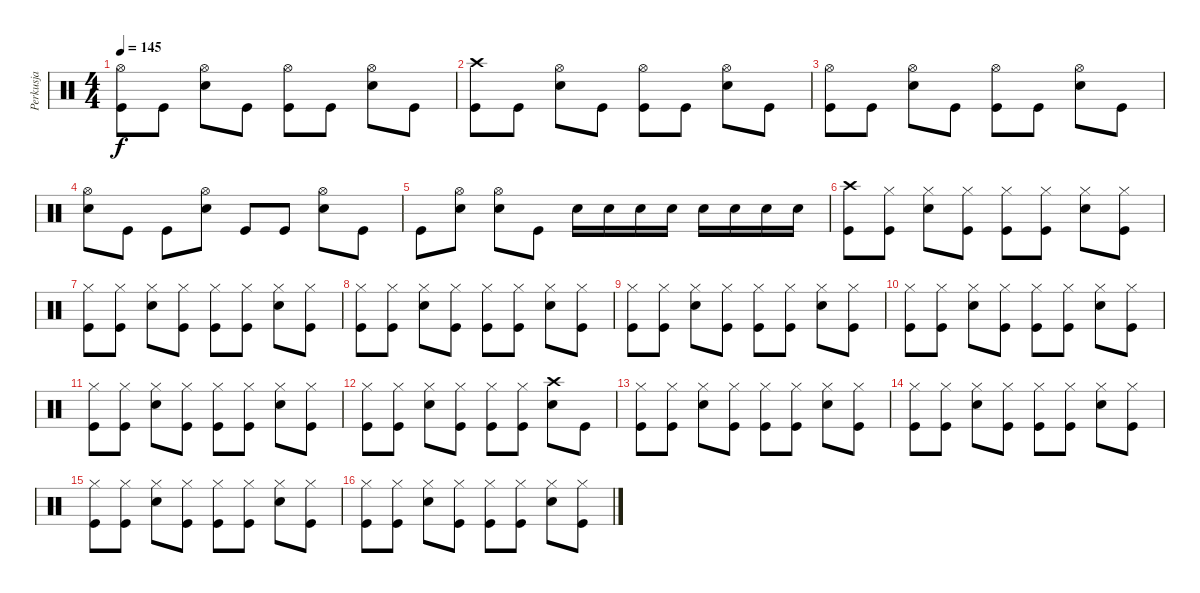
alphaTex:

\track ("Perkusja" "Perkusja") {instrument percussion}
\staff {score}
\articulation defaults
\ts (4 4)
\tempo 145
\clef neutral
\ks c
("Hi-Hat (open)" "Kick (hit)").8{dy f} "Kick (hit)".8 ("Hi-Hat (open)" "Snare (hit) 2").8 "Kick (hit)".8 ("Hi-Hat (open)" "Kick (hit)").8 "Kick (hit)".8 ("Hi-Hat (open)" "Snare (hit) 2").8 "Kick (hit)".8 |
("Crash high (hit)" "Kick (hit)").8 "Kick (hit)".8 ("Hi-Hat (open)" "Snare (hit) 2").8 "Kick (hit)".8 ("Hi-Hat (open)" "Kick (hit)").8 "Kick (hit)".8 ("Hi-Hat (open)" "Snare (hit) 2").8 "Kick (hit)".8 |
("Hi-Hat (open)" "Kick (hit)").8 "Kick (hit)".8 ("Hi-Hat (open)" "Snare (hit) 2").8 "Kick (hit)".8 ("Hi-Hat (open)" "Kick (hit)").8 "Kick (hit)".8 ("Hi-Hat (open)" "Snare (hit) 2").8 "Kick (hit)".8 |
("Hi-Hat (open)" "Snare (hit) 2").8 "Kick (hit)".8 "Kick (hit)".8 ("Hi-Hat (open)" "Snare (hit) 2").8 "Kick (hit)".8 "Kick (hit)".8 ("Hi-Hat (open)" "Snare (hit) 2").8 "Kick (hit)".8 |
"Kick (hit)".8 ("Hi-Hat (open)" "Snare (hit) 2").8 ("Hi-Hat (open)" "Snare (hit) 2").8 "Kick (hit)".8 "Snare (hit) 2".16 "Snare (hit) 2".16 "Snare (hit) 2".16 "Snare (hit) 2".16 "Snare (hit) 2".16 "Snare (hit) 2".16 "Snare (hit) 2".16 "Snare (hit) 2".16 |
("Crash high (hit)" "Kick (hit)").8 ("Hi-Hat (closed)" "Kick (hit)").8 ("Hi-Hat (closed)" "Snare (hit) 2").8 ("Hi-Hat (closed)" "Kick (hit)").8 ("Hi-Hat (closed)" "Kick (hit)").8 ("Hi-Hat (closed)" "Kick (hit)").8 ("Hi-Hat (closed)" "Snare (hit) 2").8 ("Hi-Hat (closed)" "Kick (hit)").8 |
("Hi-Hat (closed)" "Kick (hit)").8 ("Hi-Hat (closed)" "Kick (hit)").8 ("Hi-Hat (closed)" "Snare (hit) 2").8 ("Hi-Hat (closed)" "Kick (hit)").8 ("Hi-Hat (closed)" "Kick (hit)").8 ("Hi-Hat (closed)" "Kick (hit)").8 ("Hi-Hat (closed)" "Snare (hit) 2").8 ("Hi-Hat (closed)" "Kick (hit)").8 |
("Hi-Hat (closed)" "Kick (hit)").8 ("Hi-Hat (closed)" "Kick (hit)").8 ("Hi-Hat (closed)" "Snare (hit) 2").8 ("Hi-Hat (closed)" "Kick (hit)").8 ("Hi-Hat (closed)" "Kick (hit)").8 ("Hi-Hat (closed)" "Kick (hit)").8 ("Hi-Hat (closed)" "Snare (hit) 2").8 ("Hi-Hat (closed)" "Kick (hit)").8 |
("Hi-Hat (closed)" "Kick (hit)").8 ("Hi-Hat (closed)" "Kick (hit)").8 ("Hi-Hat (closed)" "Snare (hit) 2").8 ("Hi-Hat (closed)" "Kick (hit)").8 ("Hi-Hat (closed)" "Kick (hit)").8 ("Hi-Hat (closed)" "Kick (hit)").8 ("Hi-Hat (closed)" "Snare (hit) 2").8 ("Hi-Hat (closed)" "Kick (hit)").8 |
("Hi-Hat (closed)" "Kick (hit)").8 ("Hi-Hat (closed)" "Kick (hit)").8 ("Hi-Hat (closed)" "Snare (hit) 2").8 ("Hi-Hat (closed)" "Kick (hit)").8 ("Hi-Hat (closed)" "Kick (hit)").8 ("Hi-Hat (closed)" "Kick (hit)").8 ("Hi-Hat (closed)" "Snare (hit) 2").8 ("Hi-Hat (closed)" "Kick (hit)").8 |
("Hi-Hat (closed)" "Kick (hit)").8 ("Hi-Hat (closed)" "Kick (hit)").8 ("Hi-Hat (closed)" "Snare (hit) 2").8 ("Hi-Hat (closed)" "Kick (hit)").8 ("Hi-Hat (closed)" "Kick (hit)").8 ("Hi-Hat (closed)" "Kick (hit)").8 ("Hi-Hat (closed)" "Snare (hit) 2").8 ("Hi-Hat (closed)" "Kick (hit)").8 |
("Hi-Hat (closed)" "Kick (hit)").8 ("Hi-Hat (closed)" "Kick (hit)").8 ("Hi-Hat (closed)" "Snare (hit) 2").8 ("Hi-Hat (closed)" "Kick (hit)").8 ("Hi-Hat (closed)" "Kick (hit)").8 ("Hi-Hat (closed)" "Kick (hit)").8 ("Crash high (hit)" "Snare (hit) 2").8 "Kick (hit)".8 |
("Hi-Hat (closed)" "Kick (hit)").8 ("Hi-Hat (closed)" "Kick (hit)").8 ("Hi-Hat (closed)" "Snare (hit) 2").8 ("Hi-Hat (closed)" "Kick (hit)").8 ("Hi-Hat (closed)" "Kick (hit)").8 ("Hi-Hat (closed)" "Kick (hit)").8 ("Hi-Hat (closed)" "Snare (hit) 2").8 ("Hi-Hat (closed)" "Kick (hit)").8 |
("Hi-Hat (closed)" "Kick (hit)").8 ("Hi-Hat (closed)" "Kick (hit)").8 ("Hi-Hat (closed)" "Snare (hit) 2").8 ("Hi-Hat (closed)" "Kick (hit)").8 ("Hi-Hat (closed)" "Kick (hit)").8 ("Hi-Hat (closed)" "Kick (hit)").8 ("Hi-Hat (closed)" "Snare (hit) 2").8 ("Hi-Hat (closed)" "Kick (hit)").8 |
("Hi-Hat (closed)" "Kick (hit)").8 ("Hi-Hat (closed)" "Kick (hit)").8 ("Hi-Hat (closed)" "Snare (hit) 2").8 ("Hi-Hat (closed)" "Kick (hit)").8 ("Hi-Hat (closed)" "Kick (hit)").8 ("Hi-Hat (closed)" "Kick (hit)").8 ("Hi-Hat (closed)" "Snare (hit) 2").8 ("Hi-Hat (closed)" "Kick (hit)").8 |
("Hi-Hat (closed)" "Kick (hit)").8 ("Hi-Hat (closed)" "Kick (hit)").8 ("Hi-Hat (closed)" "Snare (hit) 2").8 ("Hi-Hat (closed)" "Kick (hit)").8 ("Hi-Hat (closed)" "Kick (hit)").8 ("Hi-Hat (closed)" "Kick (hit)").8 ("Hi-Hat (closed)" "Snare (hit) 2").8 ("Hi-Hat (closed)" "Kick (hit)").8
